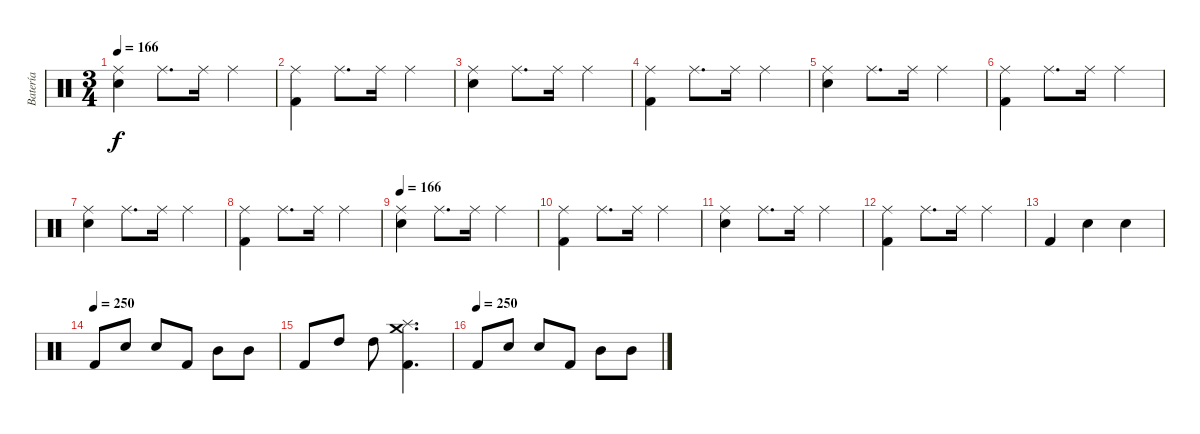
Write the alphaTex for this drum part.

\track ("Batería" "Batería") {instrument percussion}
\staff {score}
\articulation defaults
\ts (3 4)
\tempo 166
\clef neutral
\ks c
("Snare (hit) 2" "Ride (middle)").4{dy f} "Ride (middle)".8{d} "Ride (middle)".16 "Ride (middle)".4 |
("Kick (hit) 2" "Ride (middle)").4 "Ride (middle)".8{d} "Ride (middle)".16 "Ride (middle)".4 |
("Snare (hit) 2" "Ride (middle)").4 "Ride (middle)".8{d} "Ride (middle)".16 "Ride (middle)".4 |
("Kick (hit) 2" "Ride (middle)").4 "Ride (middle)".8{d} "Ride (middle)".16 "Ride (middle)".4 |
("Snare (hit) 2" "Ride (middle)").4 "Ride (middle)".8{d} "Ride (middle)".16 "Ride (middle)".4 |
("Kick (hit) 2" "Ride (middle)").4 "Ride (middle)".8{d} "Ride (middle)".16 "Ride (middle)".4 |
("Snare (hit) 2" "Ride (middle)").4 "Ride (middle)".8{d} "Ride (middle)".16 "Ride (middle)".4 |
("Kick (hit) 2" "Ride (middle)").4 "Ride (middle)".8{d} "Ride (middle)".16 "Ride (middle)".4 |
\tempo 166
("Snare (hit) 2" "Ride (middle)").4 "Ride (middle)".8{d} "Ride (middle)".16 "Ride (middle)".4 |
("Kick (hit) 2" "Ride (middle)").4 "Ride (middle)".8{d} "Ride (middle)".16 "Ride (middle)".4 |
("Snare (hit) 2" "Ride (middle)").4 "Ride (middle)".8{d} "Ride (middle)".16 "Ride (middle)".4 |
("Kick (hit) 2" "Ride (middle)").4 "Ride (middle)".8{d} "Ride (middle)".16 "Ride (middle)".4 |
"Kick (hit) 2".4 "Snare (hit) 2".4 "Snare (hit) 2".4 |
\tempo (250)
"Kick (hit) 2".8 "Snare (hit) 2".8 "Snare (hit) 2".8 "Kick (hit) 2".8 "Mid Tom (hit)".8 "Mid Tom (hit)".8 |
"Kick (hit) 2".8 "High Tom (hit)".8 "High Tom (hit)".8 ("Kick (hit) 2" "Crash medium (hit)" "Splash (hit)").4{d} |
\tempo (250)
"Kick (hit) 2".8 "Snare (hit) 2".8 "Snare (hit) 2".8 "Kick (hit) 2".8 "Mid Tom (hit)".8 "Mid Tom (hit)".8
